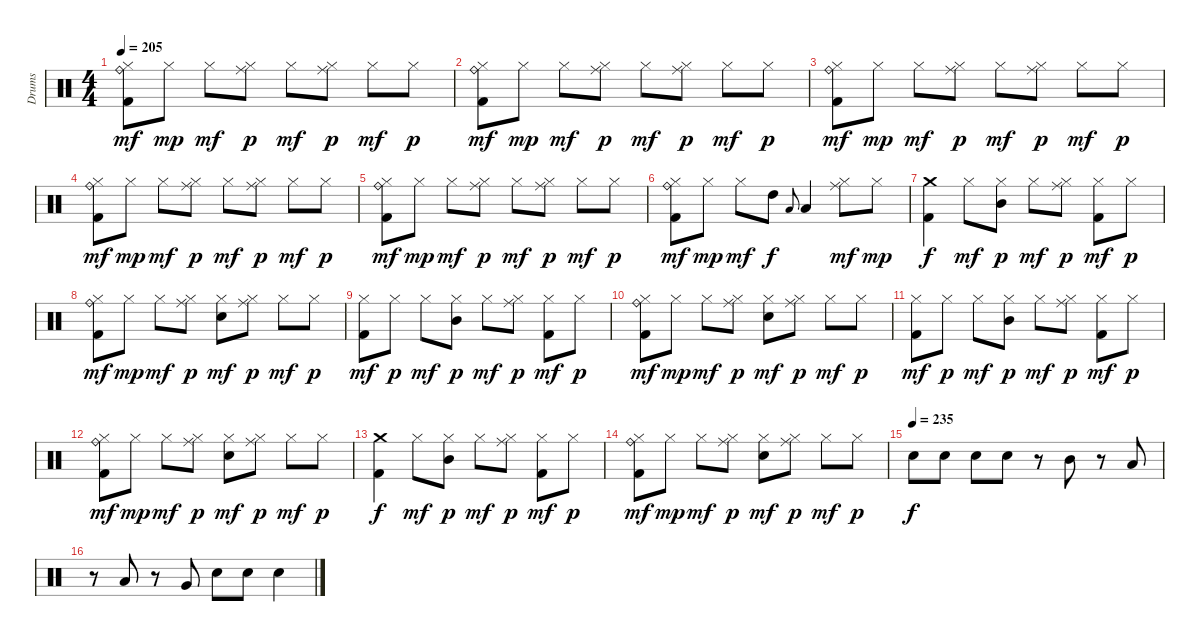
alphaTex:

\track ("Drums" "Drums") {instrument percussion}
\staff {score}
\articulation defaults
\ts (4 4)
\tempo 205
\clef neutral
\ks aminor
("Ride (bell)" "Hi-Hat (closed)" "Kick (hit) 2").8{dy mf} "Hi-Hat (closed)".8{dy mp} "Hi-Hat (closed)".8{dy mf} ("Hi-Hat (closed)" "Ride (middle)").8{dy p} "Hi-Hat (closed)".8{dy mf} ("Hi-Hat (closed)" "Ride (middle)").8{dy p} "Hi-Hat (closed)".8{dy mf} "Hi-Hat (closed)".8{dy p} |
("Ride (bell)" "Hi-Hat (closed)" "Kick (hit) 2").8{dy mf} "Hi-Hat (closed)".8{dy mp} "Hi-Hat (closed)".8{dy mf} ("Hi-Hat (closed)" "Ride (middle)").8{dy p} "Hi-Hat (closed)".8{dy mf} ("Hi-Hat (closed)" "Ride (middle)").8{dy p} "Hi-Hat (closed)".8{dy mf} "Hi-Hat (closed)".8{dy p} |
("Ride (bell)" "Hi-Hat (closed)" "Kick (hit) 2").8{dy mf} "Hi-Hat (closed)".8{dy mp} "Hi-Hat (closed)".8{dy mf} ("Hi-Hat (closed)" "Ride (middle)").8{dy p} "Hi-Hat (closed)".8{dy mf} ("Hi-Hat (closed)" "Ride (middle)").8{dy p} "Hi-Hat (closed)".8{dy mf} "Hi-Hat (closed)".8{dy p} |
("Ride (bell)" "Hi-Hat (closed)" "Kick (hit) 2").8{dy mf} "Hi-Hat (closed)".8{dy mp} "Hi-Hat (closed)".8{dy mf} ("Hi-Hat (closed)" "Ride (middle)").8{dy p} "Hi-Hat (closed)".8{dy mf} ("Hi-Hat (closed)" "Ride (middle)").8{dy p} "Hi-Hat (closed)".8{dy mf} "Hi-Hat (closed)".8{dy p} |
("Ride (bell)" "Hi-Hat (closed)" "Kick (hit) 2").8{dy mf} "Hi-Hat (closed)".8{dy mp} "Hi-Hat (closed)".8{dy mf} ("Hi-Hat (closed)" "Ride (middle)").8{dy p} "Hi-Hat (closed)".8{dy mf} ("Hi-Hat (closed)" "Ride (middle)").8{dy p} "Hi-Hat (closed)".8{dy mf} "Hi-Hat (closed)".8{dy p} |
("Ride (bell)" "Hi-Hat (closed)" "Kick (hit) 2").8{dy mf} "Hi-Hat (closed)".8{dy mp} "Hi-Hat (closed)".8{dy mf} "High Tom (hit)".8{dy f} "Low Tom (hit)".8{gr onbeat} "Low Tom (hit)".4 ("Hi-Hat (closed)" "Ride (middle)").8{dy mf} "Hi-Hat (closed)".8{dy mp} |
("Crash medium (hit)" "Kick (hit) 2").4{dy f} "Hi-Hat (closed)".8{dy mf} ("Hi-Hat (closed)" "Mid Tom (hit)").8{dy p} "Hi-Hat (closed)".8{dy mf} ("Hi-Hat (closed)" "Ride (middle)").8{dy p} ("Hi-Hat (closed)" "Kick (hit) 2").8{dy mf} "Hi-Hat (closed)".8{dy p} |
("Ride (bell)" "Hi-Hat (closed)" "Kick (hit) 2").8{dy mf} "Hi-Hat (closed)".8{dy mp} "Hi-Hat (closed)".8{dy mf} ("Hi-Hat (closed)" "Ride (middle)").8{dy p} ("Hi-Hat (closed)" "Electric Snare (hit)").8{dy mf} ("Hi-Hat (closed)" "Ride (middle)").8{dy p} "Hi-Hat (closed)".8{dy mf} "Hi-Hat (closed)".8{dy p} |
("Hi-Hat (closed)" "Kick (hit) 2").8{dy mf} "Hi-Hat (closed)".8{dy p} "Hi-Hat (closed)".8{dy mf} ("Hi-Hat (closed)" "Mid Tom (hit)").8{dy p} "Hi-Hat (closed)".8{dy mf} ("Hi-Hat (closed)" "Ride (middle)").8{dy p} ("Hi-Hat (closed)" "Kick (hit) 2").8{dy mf} "Hi-Hat (closed)".8{dy p} |
("Ride (bell)" "Hi-Hat (closed)" "Kick (hit) 2").8{dy mf} "Hi-Hat (closed)".8{dy mp} "Hi-Hat (closed)".8{dy mf} ("Hi-Hat (closed)" "Ride (middle)").8{dy p} ("Hi-Hat (closed)" "Electric Snare (hit)").8{dy mf} ("Hi-Hat (closed)" "Ride (middle)").8{dy p} "Hi-Hat (closed)".8{dy mf} "Hi-Hat (closed)".8{dy p} |
("Hi-Hat (closed)" "Kick (hit) 2").8{dy mf} "Hi-Hat (closed)".8{dy p} "Hi-Hat (closed)".8{dy mf} ("Hi-Hat (closed)" "Mid Tom (hit)").8{dy p} "Hi-Hat (closed)".8{dy mf} ("Hi-Hat (closed)" "Ride (middle)").8{dy p} ("Hi-Hat (closed)" "Kick (hit) 2").8{dy mf} "Hi-Hat (closed)".8{dy p} |
("Ride (bell)" "Hi-Hat (closed)" "Kick (hit) 2").8{dy mf} "Hi-Hat (closed)".8{dy mp} "Hi-Hat (closed)".8{dy mf} ("Hi-Hat (closed)" "Ride (middle)").8{dy p} ("Hi-Hat (closed)" "Electric Snare (hit)").8{dy mf} ("Hi-Hat (closed)" "Ride (middle)").8{dy p} "Hi-Hat (closed)".8{dy mf} "Hi-Hat (closed)".8{dy p} |
("Crash medium (hit)" "Kick (hit) 2").4{dy f} "Hi-Hat (closed)".8{dy mf} ("Hi-Hat (closed)" "Mid Tom (hit)").8{dy p} "Hi-Hat (closed)".8{dy mf} ("Hi-Hat (closed)" "Ride (middle)").8{dy p} ("Hi-Hat (closed)" "Kick (hit) 2").8{dy mf} "Hi-Hat (closed)".8{dy p} |
("Ride (bell)" "Hi-Hat (closed)" "Kick (hit) 2").8{dy mf} "Hi-Hat (closed)".8{dy mp} "Hi-Hat (closed)".8{dy mf} ("Hi-Hat (closed)" "Ride (middle)").8{dy p} ("Hi-Hat (closed)" "Electric Snare (hit)").8{dy mf} ("Hi-Hat (closed)" "Ride (middle)").8{dy p} "Hi-Hat (closed)".8{dy mf} "Hi-Hat (closed)".8{dy p} |
\tempo (235)
"Electric Snare (hit)".8{dy f} "Electric Snare (hit)".8 "Electric Snare (hit)".8 "Electric Snare (hit)".8 r.8 "Mid Tom (hit)".8 r.8 "Low Tom (hit)".8 |
r.8 "Low Tom (hit)".8 r.8 "Very Low Tom (hit)".8 "Electric Snare (hit)".8 "Electric Snare (hit)".8 "Electric Snare (hit)".4
